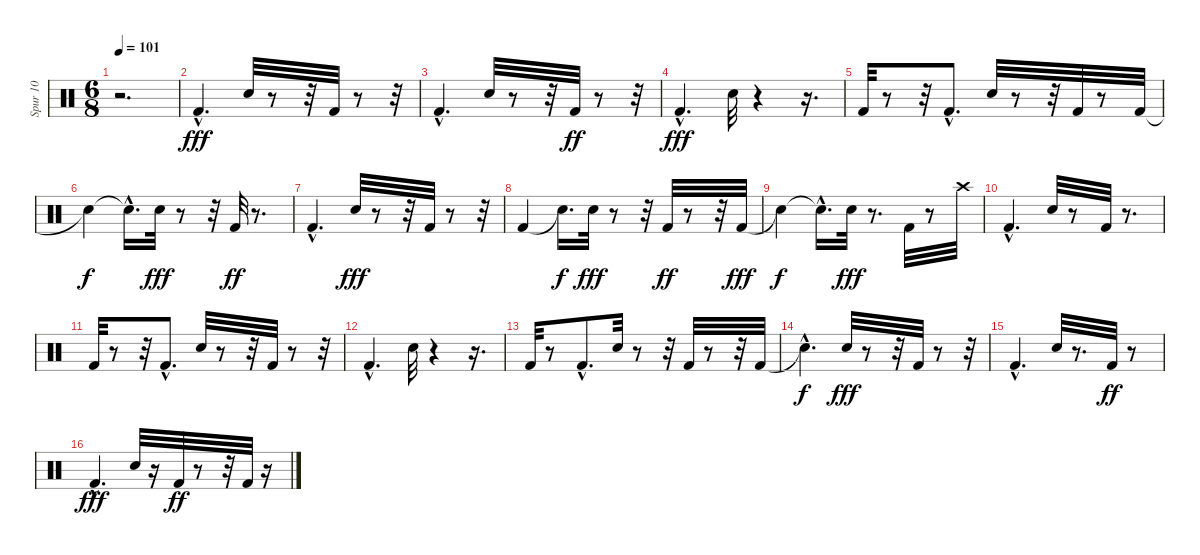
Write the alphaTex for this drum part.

\track ("Spur 10" "Spur 10") {instrument percussion}
\staff {score}
\articulation defaults
\ts (6 8)
\tempo 101
\clef neutral
\ks c
r.2{d dy fff} |
"Kick (hit) 2"{hac}.4{d} "Electric Snare (hit)".32 r.8 r.32 "Kick (hit) 2".32 r.8 r.32 |
"Kick (hit) 2"{hac}.4{d} "Electric Snare (hit)".32 r.8 r.32 "Kick (hit) 2".32{dy ff} r.8 r.32 |
"Kick (hit) 2"{hac}.4{d dy fff} "Electric Snare (hit)".32 r.4 r.16{d} |
"Kick (hit) 2".32 r.8 r.32 "Kick (hit) 2"{hac}.8{d} "Electric Snare (hit)".32 r.8 r.32 "Kick (hit) 2".32 r.8 "Kick (hit) 2".32 |
"Snare (hit)"{t}.4{dy f} "Snare (hit)"{hac t}.16{d} "Electric Snare (hit)".32{dy fff} r.8 r.32 "Kick (hit) 2".32{dy ff} r.8{d} |
"Kick (hit) 2"{hac}.4{d} "Electric Snare (hit)".32{dy fff} r.8 r.32 "Kick (hit) 2".32 r.8 r.32 |
"Kick (hit) 2".4 "Snare (hit)"{t}.16{d dy f} "Electric Snare (hit)".32{dy fff} r.8 r.32 "Kick (hit) 2".32{dy ff} r.8 r.32 "Kick (hit) 2".32{dy fff} |
"Snare (hit)"{t}.4{dy f} "Snare (hit)"{hac t}.16{d} "Electric Snare (hit)".32{dy fff} r.8{d} "Kick (hit) 2".32 r.8 "Crash high (hit)".32 |
"Kick (hit) 2"{hac}.4{d} "Electric Snare (hit)".32 r.8 "Kick (hit) 2".32 r.8{d} |
"Kick (hit) 2".32 r.8 r.32 "Kick (hit) 2"{hac}.8{d} "Electric Snare (hit)".32 r.8 r.32 "Kick (hit) 2".32 r.8 r.32 |
"Kick (hit) 2"{hac}.4{d} "Electric Snare (hit)".32 r.4 r.16{d} |
"Kick (hit) 2".32 r.8 "Kick (hit) 2"{hac}.8{d} "Electric Snare (hit)".32 r.8 r.32 "Kick (hit) 2".32 r.8 r.32 "Kick (hit) 2".32 |
"Snare (hit)"{hac t}.4{d dy f} "Electric Snare (hit)".32{dy fff} r.8 r.32 "Kick (hit) 2".32 r.8 r.32 |
"Kick (hit) 2"{hac}.4{d} "Electric Snare (hit)".32 r.8{d} "Kick (hit) 2".32{dy ff} r.8 |
"Kick (hit) 2"{hac}.4{d dy fff} "Electric Snare (hit)".32 r.16 "Kick (hit) 2".32{dy ff} r.8 r.32 "Kick (hit) 2".32 r.16
